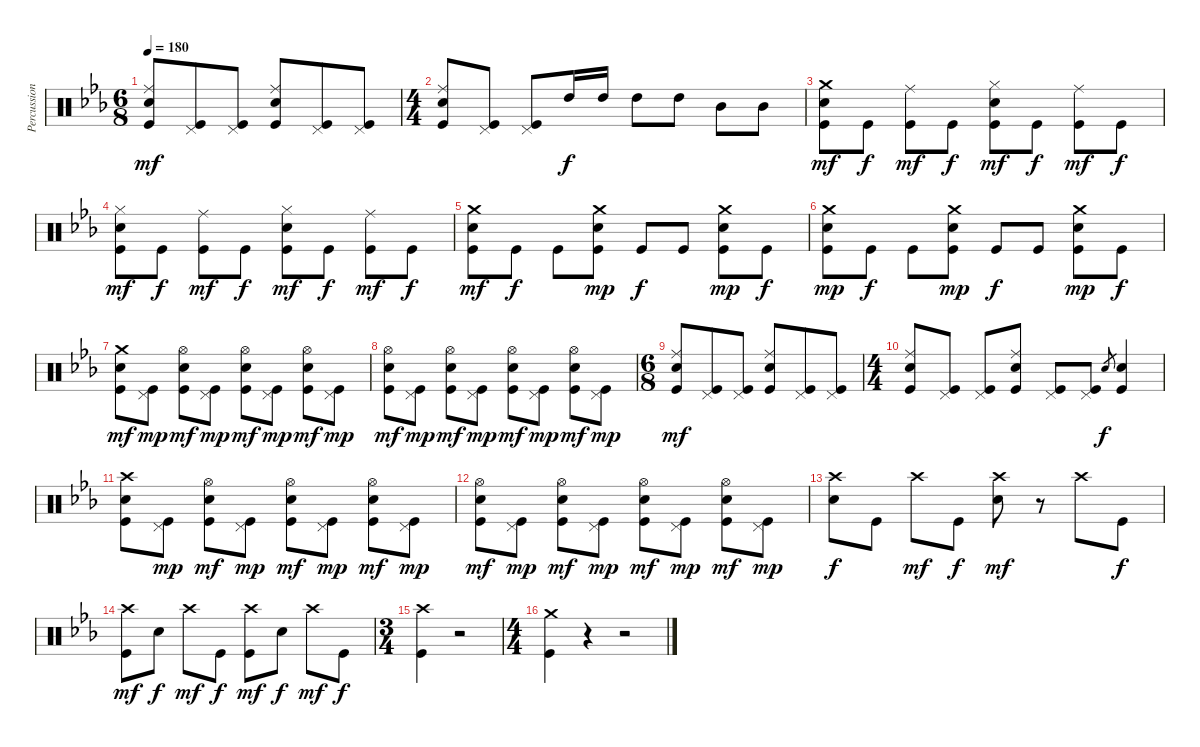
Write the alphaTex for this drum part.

\track ("Percussion" "Percussion") {instrument percussion}
\staff {score}
\articulation defaults
\ts (6 8)
\tempo 180
\clef neutral
\ks cminor
("Ride (middle)" "Snare (hit) 2" "Kick (hit)").8{dy mf} ("Pedal Hi-Hat (hit)" "Kick (hit)").8 ("Pedal Hi-Hat (hit)" "Kick (hit)").8 ("Ride (middle)" "Snare (hit) 2" "Kick (hit)").8 ("Pedal Hi-Hat (hit)" "Kick (hit)").8 ("Pedal Hi-Hat (hit)" "Kick (hit)").8 |
\ts (4 4)
("Ride (middle)" "Snare (hit) 2" "Kick (hit)").8 ("Pedal Hi-Hat (hit)" "Kick (hit)").8 ("Pedal Hi-Hat (hit)" "Kick (hit)").8 "High Tom (hit)".16{dy f} "High Tom (hit)".16 "High Tom (hit)".8 "High Tom (hit)".8 "Mid Tom (hit)".8 "Mid Tom (hit)".8 |
("Crash medium (hit)" "Snare (hit) 2" "Kick (hit)").8{dy mf} "Kick (hit)".8{dy f} ("Ride (middle)" "Kick (hit)").8{dy mf} "Kick (hit)".8{dy f} ("Hi-Hat (closed)" "Snare (hit) 2" "Kick (hit)").8{dy mf} "Kick (hit)".8{dy f} ("Ride (middle)" "Kick (hit)").8{dy mf} "Kick (hit)".8{dy f} |
("Hi-Hat (closed)" "Snare (hit) 2" "Kick (hit)").8{dy mf} "Kick (hit)".8{dy f} ("Ride (middle)" "Kick (hit)").8{dy mf} "Kick (hit)".8{dy f} ("Hi-Hat (closed)" "Snare (hit) 2" "Kick (hit)").8{dy mf} "Kick (hit)".8{dy f} ("Ride (middle)" "Kick (hit)").8{dy mf} "Kick (hit)".8{dy f} |
("Crash medium (hit)" "Snare (hit) 2" "Kick (hit)").8{dy mf} "Kick (hit)".8{dy f} "Kick (hit)".8 ("Crash medium (hit)" "Snare (hit) 2" "Kick (hit)").8{dy mp} "Kick (hit)".8{dy f} "Kick (hit)".8 ("Crash medium (hit)" "Snare (hit) 2" "Kick (hit)").8{dy mp} "Kick (hit)".8{dy f} |
("Crash medium (hit)" "Snare (hit) 2" "Kick (hit)").8{dy mp} "Kick (hit)".8{dy f} "Kick (hit)".8 ("Crash medium (hit)" "Snare (hit) 2" "Kick (hit)").8{dy mp} "Kick (hit)".8{dy f} "Kick (hit)".8 ("Crash medium (hit)" "Snare (hit) 2" "Kick (hit)").8{dy mp} "Kick (hit)".8{dy f} |
("Crash medium (hit)" "Snare (hit) 2" "Kick (hit)").8{dy mf} ("Pedal Hi-Hat (hit)" "Kick (hit)").8{dy mp} ("Hi-Hat (open)" "Snare (hit) 2" "Kick (hit)").8{dy mf} ("Pedal Hi-Hat (hit)" "Kick (hit)").8{dy mp} ("Hi-Hat (open)" "Snare (hit) 2" "Kick (hit)").8{dy mf} ("Pedal Hi-Hat (hit)" "Kick (hit)").8{dy mp} ("Hi-Hat (open)" "Snare (hit) 2" "Kick (hit)").8{dy mf} ("Pedal Hi-Hat (hit)" "Kick (hit)").8{dy mp} |
("Hi-Hat (open)" "Snare (hit) 2" "Kick (hit)").8{dy mf} ("Pedal Hi-Hat (hit)" "Kick (hit)").8{dy mp} ("Hi-Hat (open)" "Snare (hit) 2" "Kick (hit)").8{dy mf} ("Pedal Hi-Hat (hit)" "Kick (hit)").8{dy mp} ("Hi-Hat (open)" "Snare (hit) 2" "Kick (hit)").8{dy mf} ("Pedal Hi-Hat (hit)" "Kick (hit)").8{dy mp} ("Hi-Hat (open)" "Snare (hit) 2" "Kick (hit)").8{dy mf} ("Pedal Hi-Hat (hit)" "Kick (hit)").8{dy mp} |
\ts (6 8)
("Ride (middle)" "Snare (hit) 2" "Kick (hit)").8{dy mf} ("Pedal Hi-Hat (hit)" "Kick (hit)").8 ("Pedal Hi-Hat (hit)" "Kick (hit)").8 ("Ride (middle)" "Snare (hit) 2" "Kick (hit)").8 ("Pedal Hi-Hat (hit)" "Kick (hit)").8 ("Pedal Hi-Hat (hit)" "Kick (hit)").8 |
\ts (4 4)
("Ride (middle)" "Snare (hit) 2" "Kick (hit)").8 ("Pedal Hi-Hat (hit)" "Kick (hit)").8 ("Pedal Hi-Hat (hit)" "Kick (hit)").8 ("Ride (middle)" "Snare (hit) 2" "Kick (hit)").8 ("Pedal Hi-Hat (hit)" "Kick (hit)").8 ("Pedal Hi-Hat (hit)" "Kick (hit)").8 "Snare (hit) 2".8{gr dy f} ("Snare (hit) 2" "Kick (hit)").4 |
("Crash high (hit)" "Snare (hit) 2" "Kick (hit)").8 ("Pedal Hi-Hat (hit)" "Kick (hit)").8{dy mp} ("Hi-Hat (open)" "Snare (hit) 2" "Kick (hit)").8{dy mf} ("Pedal Hi-Hat (hit)" "Kick (hit)").8{dy mp} ("Hi-Hat (open)" "Snare (hit) 2" "Kick (hit)").8{dy mf} ("Pedal Hi-Hat (hit)" "Kick (hit)").8{dy mp} ("Hi-Hat (open)" "Snare (hit) 2" "Kick (hit)").8{dy mf} ("Pedal Hi-Hat (hit)" "Kick (hit)").8{dy mp} |
("Hi-Hat (open)" "Snare (hit) 2" "Kick (hit)").8{dy mf} ("Pedal Hi-Hat (hit)" "Kick (hit)").8{dy mp} ("Hi-Hat (open)" "Snare (hit) 2" "Kick (hit)").8{dy mf} ("Pedal Hi-Hat (hit)" "Kick (hit)").8{dy mp} ("Hi-Hat (open)" "Snare (hit) 2" "Kick (hit)").8{dy mf} ("Pedal Hi-Hat (hit)" "Kick (hit)").8{dy mp} ("Hi-Hat (open)" "Snare (hit) 2" "Kick (hit)").8{dy mf} ("Pedal Hi-Hat (hit)" "Kick (hit)").8{dy mp} |
("Crash high (hit)" "Snare (hit) 2").8{dy f} "Kick (hit)".8 "Crash high (hit)".8{dy mf} "Kick (hit)".8{dy f} ("Crash high (hit)" "Snare (hit) 2").8{dy mf} r.8 "Crash high (hit)".8 "Kick (hit)".8{dy f} |
("Crash high (hit)" "Kick (hit)").8{dy mf} "Snare (hit) 2".8{dy f} "Crash high (hit)".8{dy mf} "Kick (hit)".8{dy f} ("Crash high (hit)" "Kick (hit)").8{dy mf} "Snare (hit) 2".8{dy f} "Crash high (hit)".8{dy mf} "Kick (hit)".8{dy f} |
\ts (3 4)
("Crash high (hit)" "Kick (hit)").4 r.2 |
\ts (4 4)
("Crash medium (hit)" "Kick (hit)").4 r.4 r.2
